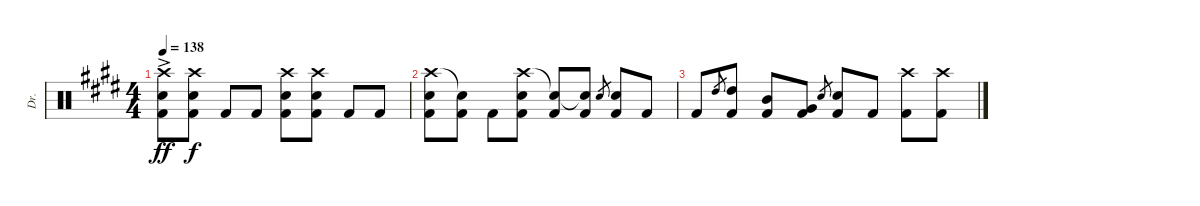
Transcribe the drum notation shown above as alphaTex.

\track ("Dr." "Dr.") {instrument percussion}
\staff {score}
\articulation defaults
\ts (4 4)
\tempo 138
\clef neutral
\ks e
("Crash high (hit)"{ac} "Snare (hit) 2" "Kick (hit) 2").8{dy ff} ("Crash high (hit)" "Snare (hit) 2" "Kick (hit) 2").8{dy f} "Kick (hit) 2".8 "Kick (hit) 2".8 ("Crash high (hit)" "Snare (hit) 2" "Kick (hit) 2").8 ("Crash high (hit)" "Snare (hit) 2" "Kick (hit) 2").8 "Kick (hit) 2".8 "Kick (hit) 2".8 |
("Crash high (hit)" "Snare (hit) 2" "Kick (hit) 2").8 ("Snare (hit)"{t} "Kick (hit) 2").8 "Kick (hit) 2".8 ("Crash high (hit)" "Snare (hit) 2" "Kick (hit) 2").8 ("Snare (hit)"{t} "Kick (hit) 2").8 ("Snare (hit)"{t} "Kick (hit) 2").8 "Snare (hit) 2".8{gr} ("Snare (hit) 2" "Kick (hit) 2").8 "Kick (hit) 2".8 |
"Kick (hit) 2".8 "High Tom (hit)".8{gr} ("High Tom (hit)" "Kick (hit) 2").8 ("Mid Tom (hit)" "Kick (hit) 2").8 ("Very Low Tom (hit)" "Kick (hit) 2").8 "Snare (hit) 2".8{gr} ("Snare (hit) 2" "Kick (hit) 2").8 "Kick (hit) 2".8 ("Crash high (hit)" "Kick (hit) 2").8 ("Crash high (hit)" "Kick (hit) 2").8
